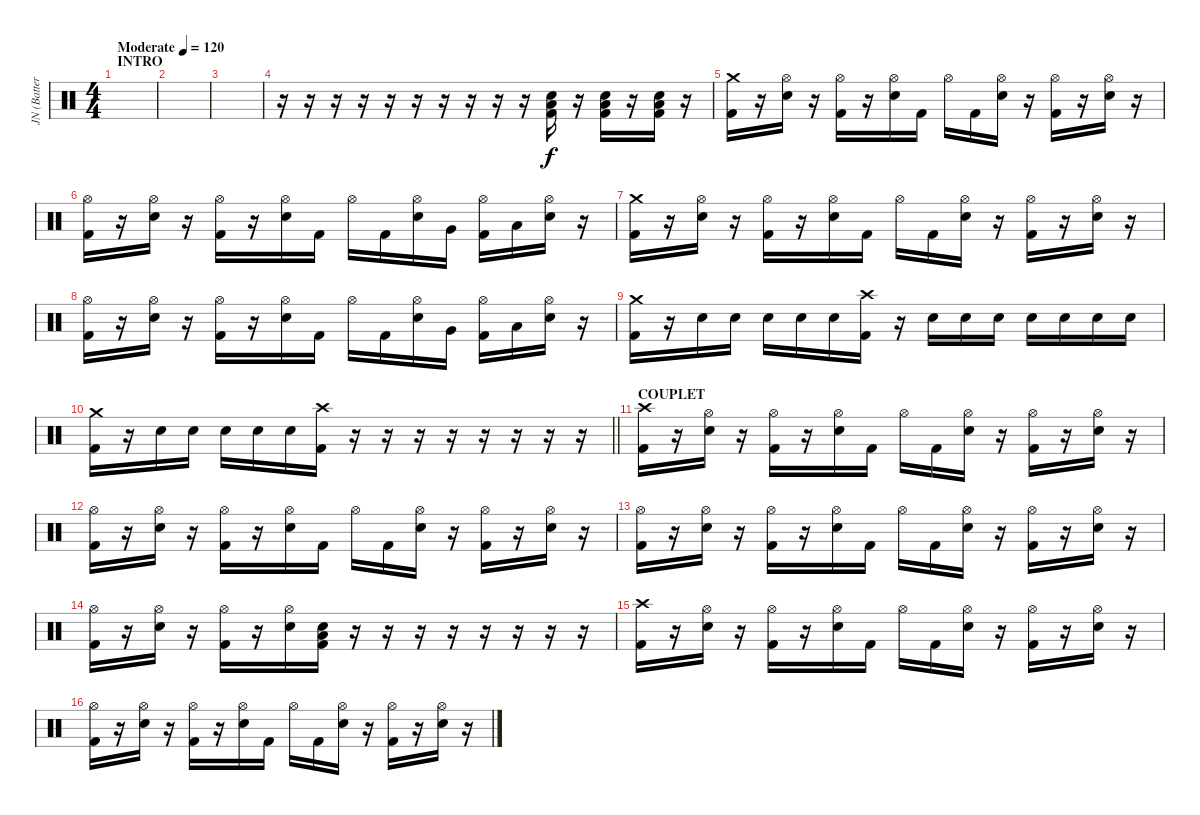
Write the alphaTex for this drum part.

\track ("JN (Batterie)" "JN (Batter") {instrument percussion}
\staff {score}
\articulation defaults
\ts (4 4)
\section ("" "INTRO")
\tempo (120 "Moderate")
\clef neutral
\ks c
|
|
|
r.16 r.16 r.16 r.16 r.16 r.16 r.16 r.16 r.16 r.16 ("Low Tom (hit)" "Kick (hit) 2" "Electric Snare (hit)").16 r.16 ("Low Tom (hit)" "Kick (hit) 2" "Electric Snare (hit)").16 r.16 ("Low Tom (hit)" "Kick (hit) 2" "Electric Snare (hit)").16 r.16 |
("Crash medium (hit)" "Kick (hit) 2").16 r.16 ("Hi-Hat (open)" "Electric Snare (hit)").16 r.16 ("Hi-Hat (open)" "Kick (hit) 2").16 r.16 ("Hi-Hat (open)" "Electric Snare (hit)").16 "Kick (hit) 2".16 "Hi-Hat (open)".16 "Kick (hit) 2".16 ("Hi-Hat (open)" "Electric Snare (hit)").16 r.16 ("Hi-Hat (open)" "Kick (hit) 2").16 r.16 ("Hi-Hat (open)" "Electric Snare (hit)").16 r.16 |
("Hi-Hat (open)" "Kick (hit) 2").16 r.16 ("Hi-Hat (open)" "Electric Snare (hit)").16 r.16 ("Hi-Hat (open)" "Kick (hit) 2").16 r.16 ("Hi-Hat (open)" "Electric Snare (hit)").16 "Kick (hit) 2".16 "Hi-Hat (open)".16 "Kick (hit) 2".16 ("Hi-Hat (open)" "Electric Snare (hit)").16 "Very Low Tom (hit)".16 ("Hi-Hat (open)" "Kick (hit) 2").16 "Low Tom (hit)".16 ("Hi-Hat (open)" "Electric Snare (hit)").16 r.16 |
("Crash medium (hit)" "Kick (hit) 2").16 r.16 ("Hi-Hat (open)" "Electric Snare (hit)").16 r.16 ("Hi-Hat (open)" "Kick (hit) 2").16 r.16 ("Hi-Hat (open)" "Electric Snare (hit)").16 "Kick (hit) 2".16 "Hi-Hat (open)".16 "Kick (hit) 2".16 ("Hi-Hat (open)" "Electric Snare (hit)").16 r.16 ("Hi-Hat (open)" "Kick (hit) 2").16 r.16 ("Hi-Hat (open)" "Electric Snare (hit)").16 r.16 |
("Hi-Hat (open)" "Kick (hit) 2").16 r.16 ("Hi-Hat (open)" "Electric Snare (hit)").16 r.16 ("Hi-Hat (open)" "Kick (hit) 2").16 r.16 ("Hi-Hat (open)" "Electric Snare (hit)").16 "Kick (hit) 2".16 "Hi-Hat (open)".16 "Kick (hit) 2".16 ("Hi-Hat (open)" "Electric Snare (hit)").16 "Very Low Tom (hit)".16 ("Hi-Hat (open)" "Kick (hit) 2").16 "Low Tom (hit)".16 ("Hi-Hat (open)" "Electric Snare (hit)").16 r.16 |
("Crash medium (hit)" "Kick (hit) 2").16 r.16 "Electric Snare (hit)".16 "Electric Snare (hit)".16 "Electric Snare (hit)".16 "Electric Snare (hit)".16 "Electric Snare (hit)".16 ("Crash high (hit)" "Kick (hit) 2").16 r.16 "Electric Snare (hit)".16 "Electric Snare (hit)".16 "Electric Snare (hit)".16 "Electric Snare (hit)".16 "Electric Snare (hit)".16 "Electric Snare (hit)".16 "Electric Snare (hit)".16 |
\barLineRight lightlight
("Crash medium (hit)" "Kick (hit) 2").16 r.16 "Electric Snare (hit)".16 "Electric Snare (hit)".16 "Electric Snare (hit)".16 "Electric Snare (hit)".16 "Electric Snare (hit)".16 ("Crash high (hit)" "Kick (hit) 2").16 r.16 r.16 r.16 r.16 r.16 r.16 r.16 r.16 |
\section ("" "COUPLET")
("Crash high (hit)" "Kick (hit) 2").16 r.16 ("Hi-Hat (open)" "Electric Snare (hit)").16 r.16 ("Hi-Hat (open)" "Kick (hit) 2").16 r.16 ("Hi-Hat (open)" "Electric Snare (hit)").16 "Kick (hit) 2".16 "Hi-Hat (open)".16 "Kick (hit) 2".16 ("Hi-Hat (open)" "Electric Snare (hit)").16 r.16 ("Hi-Hat (open)" "Kick (hit) 2").16 r.16 ("Hi-Hat (open)" "Electric Snare (hit)").16 r.16 |
("Hi-Hat (open)" "Kick (hit) 2").16 r.16 ("Hi-Hat (open)" "Electric Snare (hit)").16 r.16 ("Hi-Hat (open)" "Kick (hit) 2").16 r.16 ("Hi-Hat (open)" "Electric Snare (hit)").16 "Kick (hit) 2".16 "Hi-Hat (open)".16 "Kick (hit) 2".16 ("Hi-Hat (open)" "Electric Snare (hit)").16 r.16 ("Hi-Hat (open)" "Kick (hit) 2").16 r.16 ("Hi-Hat (open)" "Electric Snare (hit)").16 r.16 |
("Hi-Hat (open)" "Kick (hit) 2").16 r.16 ("Hi-Hat (open)" "Electric Snare (hit)").16 r.16 ("Hi-Hat (open)" "Kick (hit) 2").16 r.16 ("Hi-Hat (open)" "Electric Snare (hit)").16 "Kick (hit) 2".16 "Hi-Hat (open)".16 "Kick (hit) 2".16 ("Hi-Hat (open)" "Electric Snare (hit)").16 r.16 ("Hi-Hat (open)" "Kick (hit) 2").16 r.16 ("Hi-Hat (open)" "Electric Snare (hit)").16 r.16 |
("Hi-Hat (open)" "Kick (hit) 2").16 r.16 ("Hi-Hat (open)" "Electric Snare (hit)").16 r.16 ("Hi-Hat (open)" "Kick (hit) 2").16 r.16 ("Hi-Hat (open)" "Electric Snare (hit)").16 ("Electric Snare (hit)" "Low Tom (hit)" "Kick (hit) 2").16 r.16 r.16 r.16 r.16 r.16 r.16 r.16 r.16 |
("Crash high (hit)" "Kick (hit) 2").16 r.16 ("Hi-Hat (open)" "Electric Snare (hit)").16 r.16 ("Hi-Hat (open)" "Kick (hit) 2").16 r.16 ("Hi-Hat (open)" "Electric Snare (hit)").16 "Kick (hit) 2".16 "Hi-Hat (open)".16 "Kick (hit) 2".16 ("Hi-Hat (open)" "Electric Snare (hit)").16 r.16 ("Hi-Hat (open)" "Kick (hit) 2").16 r.16 ("Hi-Hat (open)" "Electric Snare (hit)").16 r.16 |
("Hi-Hat (open)" "Kick (hit) 2").16 r.16 ("Hi-Hat (open)" "Electric Snare (hit)").16 r.16 ("Hi-Hat (open)" "Kick (hit) 2").16 r.16 ("Hi-Hat (open)" "Electric Snare (hit)").16 "Kick (hit) 2".16 "Hi-Hat (open)".16 "Kick (hit) 2".16 ("Hi-Hat (open)" "Electric Snare (hit)").16 r.16 ("Hi-Hat (open)" "Kick (hit) 2").16 r.16 ("Hi-Hat (open)" "Electric Snare (hit)").16 r.16
